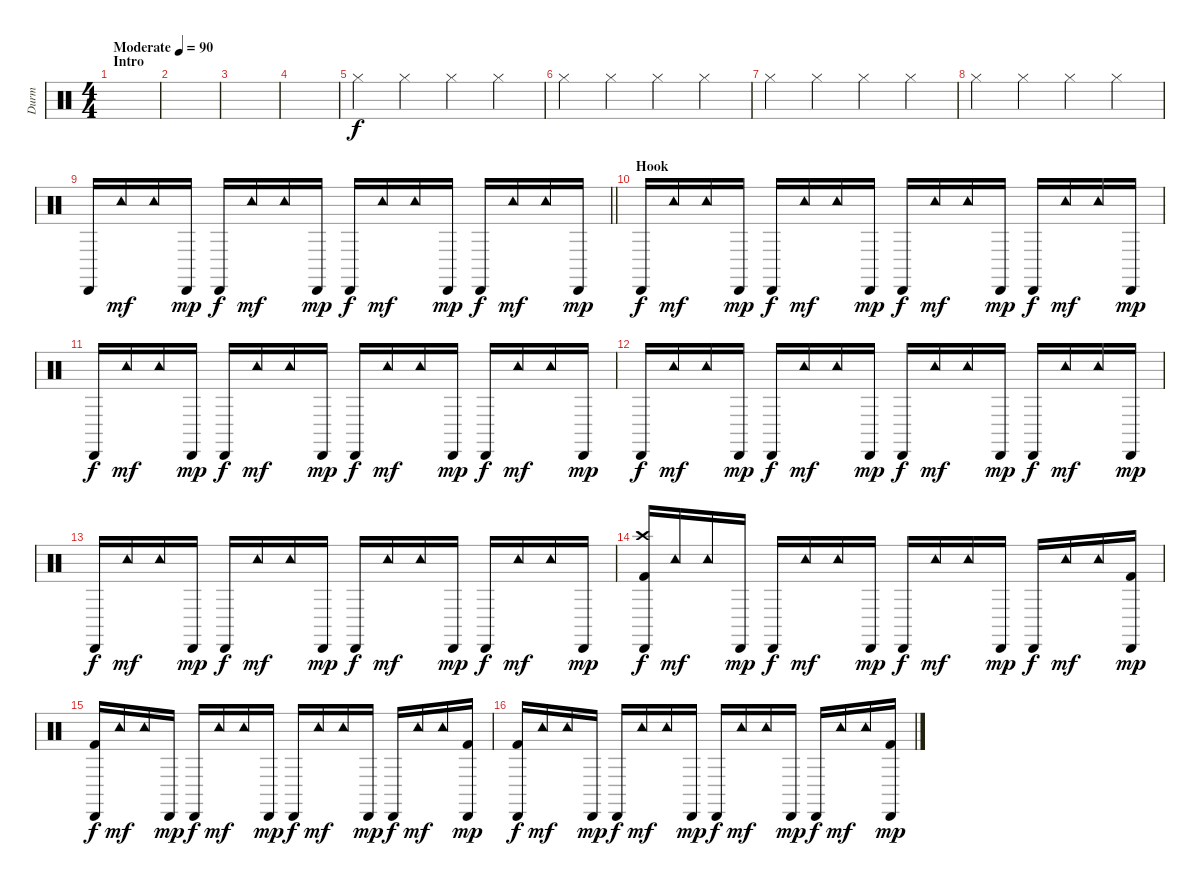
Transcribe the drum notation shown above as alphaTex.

\track ("Durm" "Durm") {instrument percussion}
\staff {score}
\articulation defaults
\ts (4 4)
\section ("" "Intro")
\tempo (90 "Moderate")
\clef neutral
\ks c
|
|
|
|
"Hi-Hat (closed)".4 "Hi-Hat (closed)".4 "Hi-Hat (closed)".4 "Hi-Hat (closed)".4 |
"Hi-Hat (closed)".4 "Hi-Hat (closed)".4 "Hi-Hat (closed)".4 "Hi-Hat (closed)".4 |
"Hi-Hat (closed)".4 "Hi-Hat (closed)".4 "Hi-Hat (closed)".4 "Hi-Hat (closed)".4 |
"Hi-Hat (closed)".4 "Hi-Hat (closed)".4 "Hi-Hat (closed)".4 "Hi-Hat (closed)".4 |
\barLineRight lightlight "Cabasa (hit)".16{dy f} "Tambourine (hit)".16{dy mf} "Tambourine (hit)".16 "Cabasa (hit)".16{dy mp} "Cabasa (hit)".16{dy f} "Tambourine (hit)".16{dy mf} "Tambourine (hit)".16 "Cabasa (hit)".16{dy mp} "Cabasa (hit)".16{dy f} "Tambourine (hit)".16{dy mf} "Tambourine (hit)".16 "Cabasa (hit)".16{dy mp} "Cabasa (hit)".16{dy f} "Tambourine (hit)".16{dy mf} "Tambourine (hit)".16 "Cabasa (hit)".16{dy mp}
|
\section ("" "Hook")
"Cabasa (hit)".16{dy f} "Tambourine (hit)".16{dy mf} "Tambourine (hit)".16 "Cabasa (hit)".16{dy mp} "Cabasa (hit)".16{dy f} "Tambourine (hit)".16{dy mf} "Tambourine (hit)".16 "Cabasa (hit)".16{dy mp} "Cabasa (hit)".16{dy f} "Tambourine (hit)".16{dy mf} "Tambourine (hit)".16 "Cabasa (hit)".16{dy mp} "Cabasa (hit)".16{dy f} "Tambourine (hit)".16{dy mf} "Tambourine (hit)".16 "Cabasa (hit)".16{dy mp} |
"Cabasa (hit)".16{dy f} "Tambourine (hit)".16{dy mf} "Tambourine (hit)".16 "Cabasa (hit)".16{dy mp} "Cabasa (hit)".16{dy f} "Tambourine (hit)".16{dy mf} "Tambourine (hit)".16 "Cabasa (hit)".16{dy mp} "Cabasa (hit)".16{dy f} "Tambourine (hit)".16{dy mf} "Tambourine (hit)".16 "Cabasa (hit)".16{dy mp} "Cabasa (hit)".16{dy f} "Tambourine (hit)".16{dy mf} "Tambourine (hit)".16 "Cabasa (hit)".16{dy mp} |
"Cabasa (hit)".16{dy f} "Tambourine (hit)".16{dy mf} "Tambourine (hit)".16 "Cabasa (hit)".16{dy mp} "Cabasa (hit)".16{dy f} "Tambourine (hit)".16{dy mf} "Tambourine (hit)".16 "Cabasa (hit)".16{dy mp} "Cabasa (hit)".16{dy f} "Tambourine (hit)".16{dy mf} "Tambourine (hit)".16 "Cabasa (hit)".16{dy mp} "Cabasa (hit)".16{dy f} "Tambourine (hit)".16{dy mf} "Tambourine (hit)".16 "Cabasa (hit)".16{dy mp} |
"Cabasa (hit)".16{dy f} "Tambourine (hit)".16{dy mf} "Tambourine (hit)".16 "Cabasa (hit)".16{dy mp} "Cabasa (hit)".16{dy f} "Tambourine (hit)".16{dy mf} "Tambourine (hit)".16 "Cabasa (hit)".16{dy mp} "Cabasa (hit)".16{dy f} "Tambourine (hit)".16{dy mf} "Tambourine (hit)".16 "Cabasa (hit)".16{dy mp} "Cabasa (hit)".16{dy f} "Tambourine (hit)".16{dy mf} "Tambourine (hit)".16 "Cabasa (hit)".16{dy mp} |
("Cabasa (hit)" "Crash high (hit)" "Kick (hit) 2").16{dy f} "Tambourine (hit)".16{dy mf} "Tambourine (hit)".16 "Cabasa (hit)".16{dy mp} "Cabasa (hit)".16{dy f} "Tambourine (hit)".16{dy mf} "Tambourine (hit)".16 "Cabasa (hit)".16{dy mp} "Cabasa (hit)".16{dy f} "Tambourine (hit)".16{dy mf} "Tambourine (hit)".16 "Cabasa (hit)".16{dy mp} "Cabasa (hit)".16{dy f} "Tambourine (hit)".16{dy mf} "Tambourine (hit)".16 ("Cabasa (hit)" "Kick (hit) 2").16{dy mp} |
("Cabasa (hit)" "Kick (hit) 2").16{dy f} "Tambourine (hit)".16{dy mf} "Tambourine (hit)".16 "Cabasa (hit)".16{dy mp} "Cabasa (hit)".16{dy f} "Tambourine (hit)".16{dy mf} "Tambourine (hit)".16 "Cabasa (hit)".16{dy mp} "Cabasa (hit)".16{dy f} "Tambourine (hit)".16{dy mf} "Tambourine (hit)".16 "Cabasa (hit)".16{dy mp} "Cabasa (hit)".16{dy f} "Tambourine (hit)".16{dy mf} "Tambourine (hit)".16 ("Cabasa (hit)" "Kick (hit) 2").16{dy mp} |
("Cabasa (hit)" "Kick (hit) 2").16{dy f} "Tambourine (hit)".16{dy mf} "Tambourine (hit)".16 "Cabasa (hit)".16{dy mp} "Cabasa (hit)".16{dy f} "Tambourine (hit)".16{dy mf} "Tambourine (hit)".16 "Cabasa (hit)".16{dy mp} "Cabasa (hit)".16{dy f} "Tambourine (hit)".16{dy mf} "Tambourine (hit)".16 "Cabasa (hit)".16{dy mp} "Cabasa (hit)".16{dy f} "Tambourine (hit)".16{dy mf} "Tambourine (hit)".16 ("Cabasa (hit)" "Kick (hit) 2").16{dy mp}
